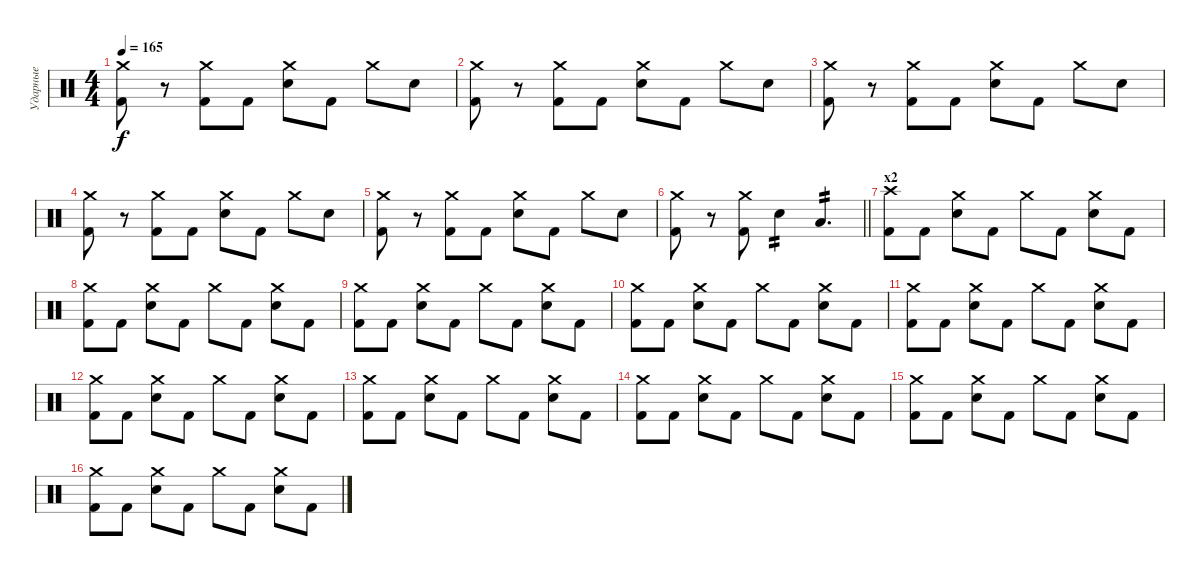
\track ("Ударные" "Ударные") {instrument percussion}
\staff {score}
\articulation defaults
\ts (4 4)
\tempo 165
\clef neutral
\ks c
("Crash medium (hit)" "Kick (hit) 2").8{dy f} r.8 ("Crash medium (hit)" "Kick (hit) 2").8 "Kick (hit) 2".8 ("Crash medium (hit)" "Electric Snare (hit)").8 "Kick (hit) 2".8 "Crash medium (hit)".8 "Electric Snare (hit)".8 |
("Crash medium (hit)" "Kick (hit) 2").8 r.8 ("Crash medium (hit)" "Kick (hit) 2").8 "Kick (hit) 2".8 ("Crash medium (hit)" "Electric Snare (hit)").8 "Kick (hit) 2".8 "Crash medium (hit)".8 "Electric Snare (hit)".8 |
("Crash medium (hit)" "Kick (hit) 2").8 r.8 ("Crash medium (hit)" "Kick (hit) 2").8 "Kick (hit) 2".8 ("Crash medium (hit)" "Electric Snare (hit)").8 "Kick (hit) 2".8 "Crash medium (hit)".8 "Electric Snare (hit)".8 |
("Crash medium (hit)" "Kick (hit) 2").8 r.8 ("Crash medium (hit)" "Kick (hit) 2").8 "Kick (hit) 2".8 ("Crash medium (hit)" "Electric Snare (hit)").8 "Kick (hit) 2".8 "Crash medium (hit)".8 "Electric Snare (hit)".8 |
("Crash medium (hit)" "Kick (hit) 2").8 r.8 ("Crash medium (hit)" "Kick (hit) 2").8 "Kick (hit) 2".8 ("Crash medium (hit)" "Electric Snare (hit)").8 "Kick (hit) 2".8 "Crash medium (hit)".8 "Electric Snare (hit)".8 |
\barLineRight lightlight
("Crash medium (hit)" "Kick (hit) 2").8 r.8 ("Crash medium (hit)" "Kick (hit) 2").8 "Electric Snare (hit)".4{tp 2} "Low Tom (hit)".4{d tp 2} |
\section ("" "х2")
("Crash high (hit)" "Kick (hit) 2").8 "Kick (hit) 2".8 ("Crash medium (hit)" "Electric Snare (hit)").8 "Kick (hit) 2".8 "Crash medium (hit)".8 "Kick (hit) 2".8 ("Crash medium (hit)" "Electric Snare (hit)").8 "Kick (hit) 2".8 |
("Crash medium (hit)" "Kick (hit) 2").8 "Kick (hit) 2".8 ("Crash medium (hit)" "Electric Snare (hit)").8 "Kick (hit) 2".8 "Crash medium (hit)".8 "Kick (hit) 2".8 ("Crash medium (hit)" "Electric Snare (hit)").8 "Kick (hit) 2".8 |
("Crash medium (hit)" "Kick (hit) 2").8 "Kick (hit) 2".8 ("Crash medium (hit)" "Electric Snare (hit)").8 "Kick (hit) 2".8 "Crash medium (hit)".8 "Kick (hit) 2".8 ("Crash medium (hit)" "Electric Snare (hit)").8 "Kick (hit) 2".8 |
("Crash medium (hit)" "Kick (hit) 2").8 "Kick (hit) 2".8 ("Crash medium (hit)" "Electric Snare (hit)").8 "Kick (hit) 2".8 "Crash medium (hit)".8 "Kick (hit) 2".8 ("Crash medium (hit)" "Electric Snare (hit)").8 "Kick (hit) 2".8 |
("Crash medium (hit)" "Kick (hit) 2").8 "Kick (hit) 2".8 ("Crash medium (hit)" "Electric Snare (hit)").8 "Kick (hit) 2".8 "Crash medium (hit)".8 "Kick (hit) 2".8 ("Crash medium (hit)" "Electric Snare (hit)").8 "Kick (hit) 2".8 |
("Crash medium (hit)" "Kick (hit) 2").8 "Kick (hit) 2".8 ("Crash medium (hit)" "Electric Snare (hit)").8 "Kick (hit) 2".8 "Crash medium (hit)".8 "Kick (hit) 2".8 ("Crash medium (hit)" "Electric Snare (hit)").8 "Kick (hit) 2".8 |
("Crash medium (hit)" "Kick (hit) 2").8 "Kick (hit) 2".8 ("Crash medium (hit)" "Electric Snare (hit)").8 "Kick (hit) 2".8 "Crash medium (hit)".8 "Kick (hit) 2".8 ("Crash medium (hit)" "Electric Snare (hit)").8 "Kick (hit) 2".8 |
("Crash medium (hit)" "Kick (hit) 2").8 "Kick (hit) 2".8 ("Crash medium (hit)" "Electric Snare (hit)").8 "Kick (hit) 2".8 "Crash medium (hit)".8 "Kick (hit) 2".8 ("Crash medium (hit)" "Electric Snare (hit)").8 "Kick (hit) 2".8 |
("Crash medium (hit)" "Kick (hit) 2").8 "Kick (hit) 2".8 ("Crash medium (hit)" "Electric Snare (hit)").8 "Kick (hit) 2".8 "Crash medium (hit)".8 "Kick (hit) 2".8 ("Crash medium (hit)" "Electric Snare (hit)").8 "Kick (hit) 2".8 |
("Crash medium (hit)" "Kick (hit) 2").8 "Kick (hit) 2".8 ("Crash medium (hit)" "Electric Snare (hit)").8 "Kick (hit) 2".8 "Crash medium (hit)".8 "Kick (hit) 2".8 ("Crash medium (hit)" "Electric Snare (hit)").8 "Kick (hit) 2".8
